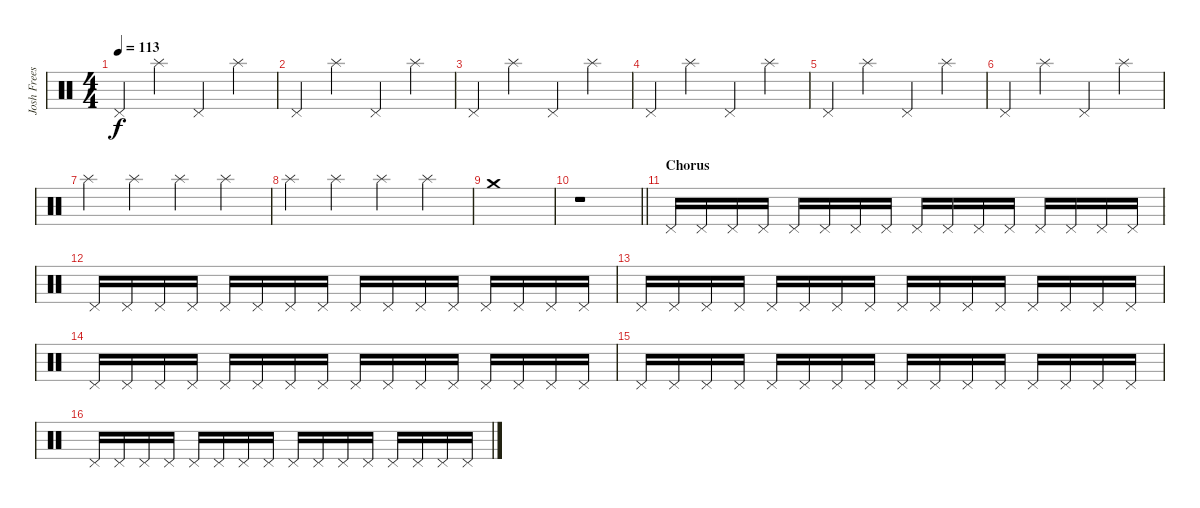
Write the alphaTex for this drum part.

\track ("Josh Freese (Studio Drummer)" "Josh Frees") {instrument percussion}
\staff {score}
\articulation defaults
\ts (4 4)
\tempo 113
\clef neutral
\ks c "Pedal Hi-Hat (hit)".4{dy f} "Splash (hit)".4 "Pedal Hi-Hat (hit)".4 "Splash (hit)".4
|
"Pedal Hi-Hat (hit)".4 "Splash (hit)".4 "Pedal Hi-Hat (hit)".4 "Splash (hit)".4 |
"Pedal Hi-Hat (hit)".4 "Splash (hit)".4 "Pedal Hi-Hat (hit)".4 "Splash (hit)".4 |
"Pedal Hi-Hat (hit)".4 "Splash (hit)".4 "Pedal Hi-Hat (hit)".4 "Splash (hit)".4 |
"Pedal Hi-Hat (hit)".4 "Splash (hit)".4 "Pedal Hi-Hat (hit)".4 "Splash (hit)".4 |
"Pedal Hi-Hat (hit)".4 "Splash (hit)".4 "Pedal Hi-Hat (hit)".4 "Splash (hit)".4 |
"Splash (hit)".4 "Splash (hit)".4 "Splash (hit)".4 "Splash (hit)".4 |
"Splash (hit)".4 "Splash (hit)".4 "Splash (hit)".4 "Splash (hit)".4 |
"Crash medium (hit)".1 |
\barLineRight lightlight
r.1 |
\section ("" "Chorus")
"Pedal Hi-Hat (hit)".16 "Pedal Hi-Hat (hit)".16 "Pedal Hi-Hat (hit)".16 "Pedal Hi-Hat (hit)".16 "Pedal Hi-Hat (hit)".16 "Pedal Hi-Hat (hit)".16 "Pedal Hi-Hat (hit)".16 "Pedal Hi-Hat (hit)".16 "Pedal Hi-Hat (hit)".16 "Pedal Hi-Hat (hit)".16 "Pedal Hi-Hat (hit)".16 "Pedal Hi-Hat (hit)".16 "Pedal Hi-Hat (hit)".16 "Pedal Hi-Hat (hit)".16 "Pedal Hi-Hat (hit)".16 "Pedal Hi-Hat (hit)".16 |
"Pedal Hi-Hat (hit)".16 "Pedal Hi-Hat (hit)".16 "Pedal Hi-Hat (hit)".16 "Pedal Hi-Hat (hit)".16 "Pedal Hi-Hat (hit)".16 "Pedal Hi-Hat (hit)".16 "Pedal Hi-Hat (hit)".16 "Pedal Hi-Hat (hit)".16 "Pedal Hi-Hat (hit)".16 "Pedal Hi-Hat (hit)".16 "Pedal Hi-Hat (hit)".16 "Pedal Hi-Hat (hit)".16 "Pedal Hi-Hat (hit)".16 "Pedal Hi-Hat (hit)".16 "Pedal Hi-Hat (hit)".16 "Pedal Hi-Hat (hit)".16 |
"Pedal Hi-Hat (hit)".16 "Pedal Hi-Hat (hit)".16 "Pedal Hi-Hat (hit)".16 "Pedal Hi-Hat (hit)".16 "Pedal Hi-Hat (hit)".16 "Pedal Hi-Hat (hit)".16 "Pedal Hi-Hat (hit)".16 "Pedal Hi-Hat (hit)".16 "Pedal Hi-Hat (hit)".16 "Pedal Hi-Hat (hit)".16 "Pedal Hi-Hat (hit)".16 "Pedal Hi-Hat (hit)".16 "Pedal Hi-Hat (hit)".16 "Pedal Hi-Hat (hit)".16 "Pedal Hi-Hat (hit)".16 "Pedal Hi-Hat (hit)".16 |
"Pedal Hi-Hat (hit)".16 "Pedal Hi-Hat (hit)".16 "Pedal Hi-Hat (hit)".16 "Pedal Hi-Hat (hit)".16 "Pedal Hi-Hat (hit)".16 "Pedal Hi-Hat (hit)".16 "Pedal Hi-Hat (hit)".16 "Pedal Hi-Hat (hit)".16 "Pedal Hi-Hat (hit)".16 "Pedal Hi-Hat (hit)".16 "Pedal Hi-Hat (hit)".16 "Pedal Hi-Hat (hit)".16 "Pedal Hi-Hat (hit)".16 "Pedal Hi-Hat (hit)".16 "Pedal Hi-Hat (hit)".16 "Pedal Hi-Hat (hit)".16 |
"Pedal Hi-Hat (hit)".16 "Pedal Hi-Hat (hit)".16 "Pedal Hi-Hat (hit)".16 "Pedal Hi-Hat (hit)".16 "Pedal Hi-Hat (hit)".16 "Pedal Hi-Hat (hit)".16 "Pedal Hi-Hat (hit)".16 "Pedal Hi-Hat (hit)".16 "Pedal Hi-Hat (hit)".16 "Pedal Hi-Hat (hit)".16 "Pedal Hi-Hat (hit)".16 "Pedal Hi-Hat (hit)".16 "Pedal Hi-Hat (hit)".16 "Pedal Hi-Hat (hit)".16 "Pedal Hi-Hat (hit)".16 "Pedal Hi-Hat (hit)".16 |
"Pedal Hi-Hat (hit)".16 "Pedal Hi-Hat (hit)".16 "Pedal Hi-Hat (hit)".16 "Pedal Hi-Hat (hit)".16 "Pedal Hi-Hat (hit)".16 "Pedal Hi-Hat (hit)".16 "Pedal Hi-Hat (hit)".16 "Pedal Hi-Hat (hit)".16 "Pedal Hi-Hat (hit)".16 "Pedal Hi-Hat (hit)".16 "Pedal Hi-Hat (hit)".16 "Pedal Hi-Hat (hit)".16 "Pedal Hi-Hat (hit)".16 "Pedal Hi-Hat (hit)".16 "Pedal Hi-Hat (hit)".16 "Pedal Hi-Hat (hit)".16
